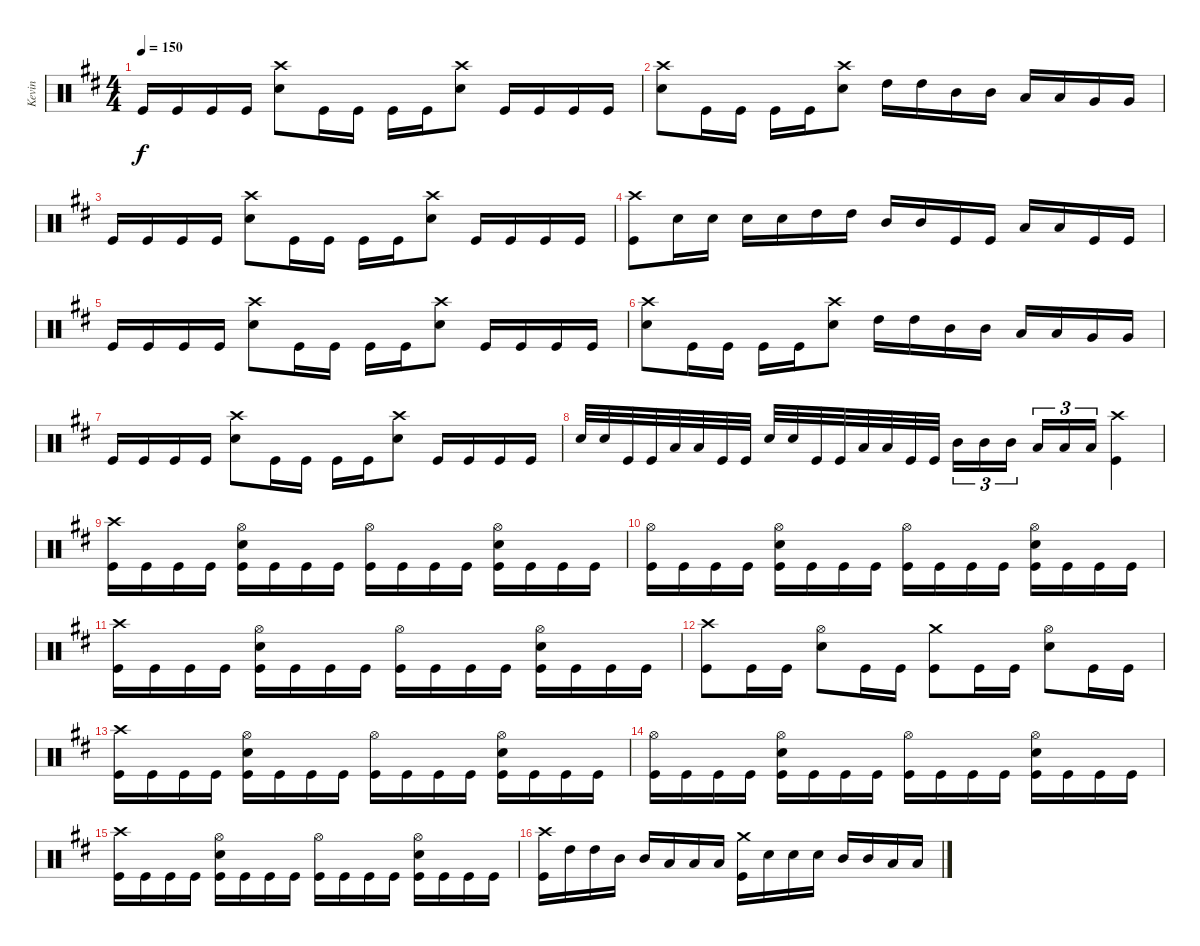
\track ("Kevin" "Kevin") {instrument percussion}
\staff {score}
\articulation defaults
\ts (4 4)
\tempo 150
\clef neutral
\ks d "Kick (hit)".16{dy f} "Kick (hit)".16 "Kick (hit)".16 "Kick (hit)".16
("Crash high (hit)" "Snare (hit) 2").8 "Kick (hit)".16 "Kick (hit)".16 "Kick (hit)".16 "Kick (hit)".16 ("Crash high (hit)" "Snare (hit) 2").8 "Kick (hit)".16 "Kick (hit)".16 "Kick (hit)".16 "Kick (hit)".16 |
("Crash high (hit)" "Snare (hit) 2").8 "Kick (hit)".16 "Kick (hit)".16 "Kick (hit)".16 "Kick (hit)".16 ("Crash high (hit)" "Snare (hit) 2").8 "High Tom (hit)".16 "High Tom (hit)".16 "Mid Tom (hit)".16 "Mid Tom (hit)".16 "Low Tom (hit)".16 "Low Tom (hit)".16 "Very Low Tom (hit)".16 "Very Low Tom (hit)".16 |
"Kick (hit)".16 "Kick (hit)".16 "Kick (hit)".16 "Kick (hit)".16 ("Crash high (hit)" "Snare (hit) 2").8 "Kick (hit)".16 "Kick (hit)".16 "Kick (hit)".16 "Kick (hit)".16 ("Crash high (hit)" "Snare (hit) 2").8 "Kick (hit)".16 "Kick (hit)".16 "Kick (hit)".16 "Kick (hit)".16 |
("Crash high (hit)" "Kick (hit)").8 "Snare (hit) 2".16 "Snare (hit) 2".16 "Snare (hit) 2".16 "Snare (hit) 2".16 "High Tom (hit)".16 "High Tom (hit)".16 "Mid Tom (hit)".16 "Mid Tom (hit)".16 "Kick (hit)".16 "Kick (hit)".16 "Low Tom (hit)".16 "Low Tom (hit)".16 "Kick (hit)".16 "Kick (hit)".16 |
"Kick (hit)".16 "Kick (hit)".16 "Kick (hit)".16 "Kick (hit)".16 ("Crash high (hit)" "Snare (hit) 2").8 "Kick (hit)".16 "Kick (hit)".16 "Kick (hit)".16 "Kick (hit)".16 ("Crash high (hit)" "Snare (hit) 2").8 "Kick (hit)".16 "Kick (hit)".16 "Kick (hit)".16 "Kick (hit)".16 |
("Crash high (hit)" "Snare (hit) 2").8 "Kick (hit)".16 "Kick (hit)".16 "Kick (hit)".16 "Kick (hit)".16 ("Crash high (hit)" "Snare (hit) 2").8 "High Tom (hit)".16 "High Tom (hit)".16 "Mid Tom (hit)".16 "Mid Tom (hit)".16 "Low Tom (hit)".16 "Low Tom (hit)".16 "Very Low Tom (hit)".16 "Very Low Tom (hit)".16 |
"Kick (hit)".16 "Kick (hit)".16 "Kick (hit)".16 "Kick (hit)".16 ("Crash high (hit)" "Snare (hit) 2").8 "Kick (hit)".16 "Kick (hit)".16 "Kick (hit)".16 "Kick (hit)".16 ("Crash high (hit)" "Snare (hit) 2").8 "Kick (hit)".16 "Kick (hit)".16 "Kick (hit)".16 "Kick (hit)".16 |
"Snare (hit) 2".32 "Snare (hit) 2".32 "Kick (hit)".32 "Kick (hit)".32 "Low Tom (hit)".32 "Low Tom (hit)".32 "Kick (hit)".32 "Kick (hit)".32 "Snare (hit) 2".32 "Snare (hit) 2".32 "Kick (hit)".32 "Kick (hit)".32 "Low Tom (hit)".32 "Low Tom (hit)".32 "Kick (hit)".32 "Kick (hit)".32 "Mid Tom (hit)".16{tu (3 2)} "Mid Tom (hit)".16{tu (3 2)} "Mid Tom (hit)".16{tu (3 2) beam splitsecondary} "Low Tom (hit)".16{tu (3 2)} "Low Tom (hit)".16{tu (3 2)} "Low Tom (hit)".16{tu (3 2)} ("Crash high (hit)" "Kick (hit)").4 |
("Crash high (hit)" "Kick (hit)").16 "Kick (hit)".16 "Kick (hit)".16 "Kick (hit)".16 ("Hi-Hat (open)" "Snare (hit) 2" "Kick (hit)").16 "Kick (hit)".16 "Kick (hit)".16 "Kick (hit)".16 ("Hi-Hat (open)" "Kick (hit)").16 "Kick (hit)".16 "Kick (hit)".16 "Kick (hit)".16 ("Hi-Hat (open)" "Snare (hit) 2" "Kick (hit)").16 "Kick (hit)".16 "Kick (hit)".16 "Kick (hit)".16 |
("Hi-Hat (open)" "Kick (hit)").16 "Kick (hit)".16 "Kick (hit)".16 "Kick (hit)".16 ("Hi-Hat (open)" "Snare (hit) 2" "Kick (hit)").16 "Kick (hit)".16 "Kick (hit)".16 "Kick (hit)".16 ("Hi-Hat (open)" "Kick (hit)").16 "Kick (hit)".16 "Kick (hit)".16 "Kick (hit)".16 ("Hi-Hat (open)" "Snare (hit) 2" "Kick (hit)").16 "Kick (hit)".16 "Kick (hit)".16 "Kick (hit)".16 |
("Crash high (hit)" "Kick (hit)").16 "Kick (hit)".16 "Kick (hit)".16 "Kick (hit)".16 ("Hi-Hat (open)" "Snare (hit) 2" "Kick (hit)").16 "Kick (hit)".16 "Kick (hit)".16 "Kick (hit)".16 ("Hi-Hat (open)" "Kick (hit)").16 "Kick (hit)".16 "Kick (hit)".16 "Kick (hit)".16 ("Hi-Hat (open)" "Snare (hit) 2" "Kick (hit)").16 "Kick (hit)".16 "Kick (hit)".16 "Kick (hit)".16 |
("Crash high (hit)" "Kick (hit)").8 "Kick (hit)".16 "Kick (hit)".16 ("Hi-Hat (open)" "Snare (hit) 2").8 "Kick (hit)".16 "Kick (hit)".16 ("Crash medium (hit)" "Kick (hit)").8 "Kick (hit)".16 "Kick (hit)".16 ("Hi-Hat (open)" "Snare (hit) 2").8 "Kick (hit)".16 "Kick (hit)".16 |
("Crash high (hit)" "Kick (hit)").16 "Kick (hit)".16 "Kick (hit)".16 "Kick (hit)".16 ("Hi-Hat (open)" "Snare (hit) 2" "Kick (hit)").16 "Kick (hit)".16 "Kick (hit)".16 "Kick (hit)".16 ("Hi-Hat (open)" "Kick (hit)").16 "Kick (hit)".16 "Kick (hit)".16 "Kick (hit)".16 ("Hi-Hat (open)" "Snare (hit) 2" "Kick (hit)").16 "Kick (hit)".16 "Kick (hit)".16 "Kick (hit)".16 |
("Hi-Hat (open)" "Kick (hit)").16 "Kick (hit)".16 "Kick (hit)".16 "Kick (hit)".16 ("Hi-Hat (open)" "Snare (hit) 2" "Kick (hit)").16 "Kick (hit)".16 "Kick (hit)".16 "Kick (hit)".16 ("Hi-Hat (open)" "Kick (hit)").16 "Kick (hit)".16 "Kick (hit)".16 "Kick (hit)".16 ("Hi-Hat (open)" "Snare (hit) 2" "Kick (hit)").16 "Kick (hit)".16 "Kick (hit)".16 "Kick (hit)".16 |
("Crash high (hit)" "Kick (hit)").16 "Kick (hit)".16 "Kick (hit)".16 "Kick (hit)".16 ("Hi-Hat (open)" "Snare (hit) 2" "Kick (hit)").16 "Kick (hit)".16 "Kick (hit)".16 "Kick (hit)".16 ("Hi-Hat (open)" "Kick (hit)").16 "Kick (hit)".16 "Kick (hit)".16 "Kick (hit)".16 ("Hi-Hat (open)" "Snare (hit) 2" "Kick (hit)").16 "Kick (hit)".16 "Kick (hit)".16 "Kick (hit)".16 |
("Crash high (hit)" "Kick (hit)").16 "High Tom (hit)".16 "High Tom (hit)".16 "Mid Tom (hit)".16 "Mid Tom (hit)".16 "Low Tom (hit)".16 "Low Tom (hit)".16 "Low Tom (hit)".16 ("Crash medium (hit)" "Kick (hit)").16 "Snare (hit) 2".16 "Snare (hit) 2".16 "Snare (hit) 2".16 "Mid Tom (hit)".16 "Mid Tom (hit)".16 "Low Tom (hit)".16 "Low Tom (hit)".16
